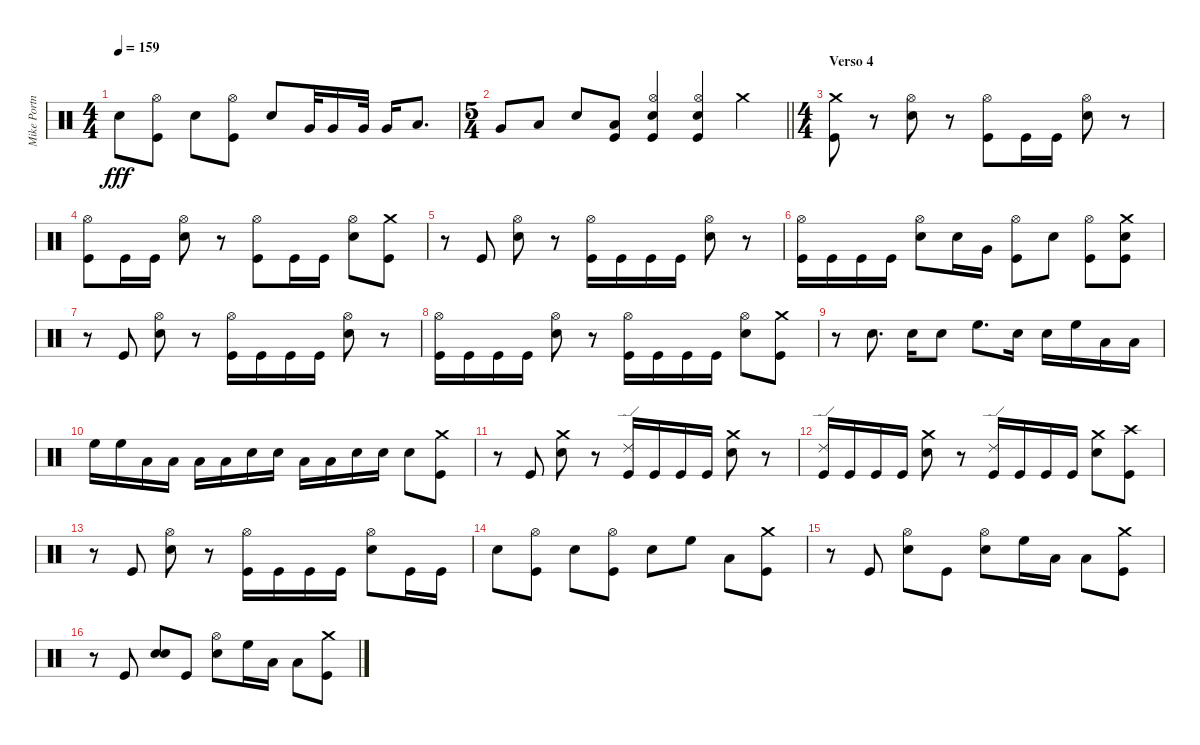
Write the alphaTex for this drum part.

\track ("Mike Portnoy" "Mike Portn") {instrument percussion}
\staff {score}
\articulation defaults
\ts (4 4)
\tempo 159
\clef neutral
\ks c "Electric Snare (hit)".8{dy fff}
("Hi-Hat (open)" "Kick (hit)").8 "Electric Snare (hit)".8 ("Hi-Hat (open)" "Kick (hit)").8 "Electric Snare (hit)".8 "Very Low Tom (hit)".32 "Very Low Tom (hit)".16 "Very Low Tom (hit)".32 "Very Low Tom (hit)".16 "Low Floor Tom (hit)".8{d} |
\ts (5 4)
\barLineRight lightlight "Very Low Tom (hit)".8 "Low Floor Tom (hit)".8 "Electric Snare (hit)".8
("Low Floor Tom (hit)" "Kick (hit)").8 ("Hi-Hat (open)" "Electric Snare (hit)" "Kick (hit)").4 ("Hi-Hat (open)" "Electric Snare (hit)" "Kick (hit)").4 "Crash medium (hit)".4 |
\ts (4 4)
\section ("" "Verso 4")
("Crash medium (hit)" "Kick (hit)").8 r.8 ("Hi-Hat (open)" "Electric Snare (hit)").8 r.8 ("Hi-Hat (open)" "Kick (hit)").8 "Kick (hit)".16 "Kick (hit)".16 ("Hi-Hat (open)" "Electric Snare (hit)").8 r.8 |
("Hi-Hat (open)" "Kick (hit)").8 "Kick (hit)".16 "Kick (hit)".16 ("Hi-Hat (open)" "Electric Snare (hit)").8 r.8 ("Hi-Hat (open)" "Kick (hit)").8 "Kick (hit)".16 "Kick (hit)".16 ("Hi-Hat (open)" "Electric Snare (hit)").8 ("Crash medium (hit)" "Kick (hit)").8 |
r.8 "Kick (hit)".8 ("Hi-Hat (open)" "Electric Snare (hit)").8 r.8 ("Hi-Hat (open)" "Kick (hit)").16 "Kick (hit)".16 "Kick (hit)".16 "Kick (hit)".16 ("Hi-Hat (open)" "Electric Snare (hit)").8 r.8 |
("Hi-Hat (open)" "Kick (hit)").16 "Kick (hit)".16 "Kick (hit)".16 "Kick (hit)".16 ("Hi-Hat (open)" "Electric Snare (hit)").8 "Electric Snare (hit)".16 "Very Low Tom (hit)".16 ("Hi-Hat (open)" "Kick (hit)").8 "Electric Snare (hit)".8 ("Hi-Hat (open)" "Kick (hit)").8 ("Crash medium (hit)" "Electric Snare (hit)" "Kick (hit)").8 |
r.8 "Kick (hit)".8 ("Hi-Hat (open)" "Electric Snare (hit)").8 r.8 ("Hi-Hat (open)" "Kick (hit)").16 "Kick (hit)".16 "Kick (hit)".16 "Kick (hit)".16 ("Hi-Hat (open)" "Electric Snare (hit)").8 r.8 |
("Hi-Hat (open)" "Kick (hit)").16 "Kick (hit)".16 "Kick (hit)".16 "Kick (hit)".16 ("Hi-Hat (open)" "Electric Snare (hit)").8 r.8 ("Hi-Hat (open)" "Kick (hit)").16 "Kick (hit)".16 "Kick (hit)".16 "Kick (hit)".16 ("Hi-Hat (open)" "Electric Snare (hit)").8 ("Crash medium (hit)" "Kick (hit)").8 |
r.8 "Electric Snare (hit)".8{d} "Electric Snare (hit)".16 "Electric Snare (hit)".8 "High Floor Tom (hit)".8{d} "Electric Snare (hit)".16 "Electric Snare (hit)".16 "High Floor Tom (hit)".16 "Low Tom (hit)".16 "Low Tom (hit)".16 |
"High Floor Tom (hit)".16 "High Floor Tom (hit)".16 "Low Tom (hit)".16 "Low Tom (hit)".16 "Low Floor Tom (hit)".16 "Low Floor Tom (hit)".16 "Electric Snare (hit)".16 "Electric Snare (hit)".16 "Low Floor Tom (hit)".16 "Low Floor Tom (hit)".16 "Electric Snare (hit)".16 "Electric Snare (hit)".16 "Electric Snare (hit)".8 ("Crash medium (hit)" "Kick (hit)").8 |
r.8 "Kick (hit)".8 ("Crash medium (hit)" "Electric Snare (hit)").8 r.8 ("Ride (edge) 2" "Kick (hit)").16 "Kick (hit)".16 "Kick (hit)".16 "Kick (hit)".16 ("Crash medium (hit)" "Electric Snare (hit)").8 r.8 |
("Ride (edge) 2" "Kick (hit)").16 "Kick (hit)".16 "Kick (hit)".16 "Kick (hit)".16 ("Crash medium (hit)" "Electric Snare (hit)").8 r.8 ("Ride (edge) 2" "Kick (hit)").16 "Kick (hit)".16 "Kick (hit)".16 "Kick (hit)".16 ("Crash medium (hit)" "Electric Snare (hit)").8 ("Crash high (hit)" "Kick (hit)").8 |
r.8 "Kick (hit)".8 ("Hi-Hat (open)" "Electric Snare (hit)").8 r.8 ("Hi-Hat (open)" "Kick (hit)").16 "Kick (hit)".16 "Kick (hit)".16 "Kick (hit)".16 ("Hi-Hat (open)" "Electric Snare (hit)").8 "Kick (hit)".16 "Kick (hit)".16 |
"Electric Snare (hit)".8 ("Hi-Hat (open)" "Kick (hit)").8 "Electric Snare (hit)".8 ("Hi-Hat (open)" "Kick (hit)").8 "Electric Snare (hit)".8 "High Floor Tom (hit)".8 "Low Tom (hit)".8 ("Crash medium (hit)" "Kick (hit)").8 |
r.8 "Kick (hit)".8 ("Hi-Hat (open)" "Electric Snare (hit)").8 "Kick (hit)".8 ("Hi-Hat (open)" "Electric Snare (hit)").8 "High Floor Tom (hit)".16 "Low Tom (hit)".16 "Low Floor Tom (hit)".8 ("Crash medium (hit)" "Kick (hit)").8 |
r.8 "Kick (hit)".8 ("Snare (hit) 2" "Electric Snare (hit)").8 "Kick (hit)".8 ("Hi-Hat (open)" "Electric Snare (hit)").8 "High Floor Tom (hit)".16 "Low Tom (hit)".16 "Low Floor Tom (hit)".8 ("Crash medium (hit)" "Kick (hit)").8
